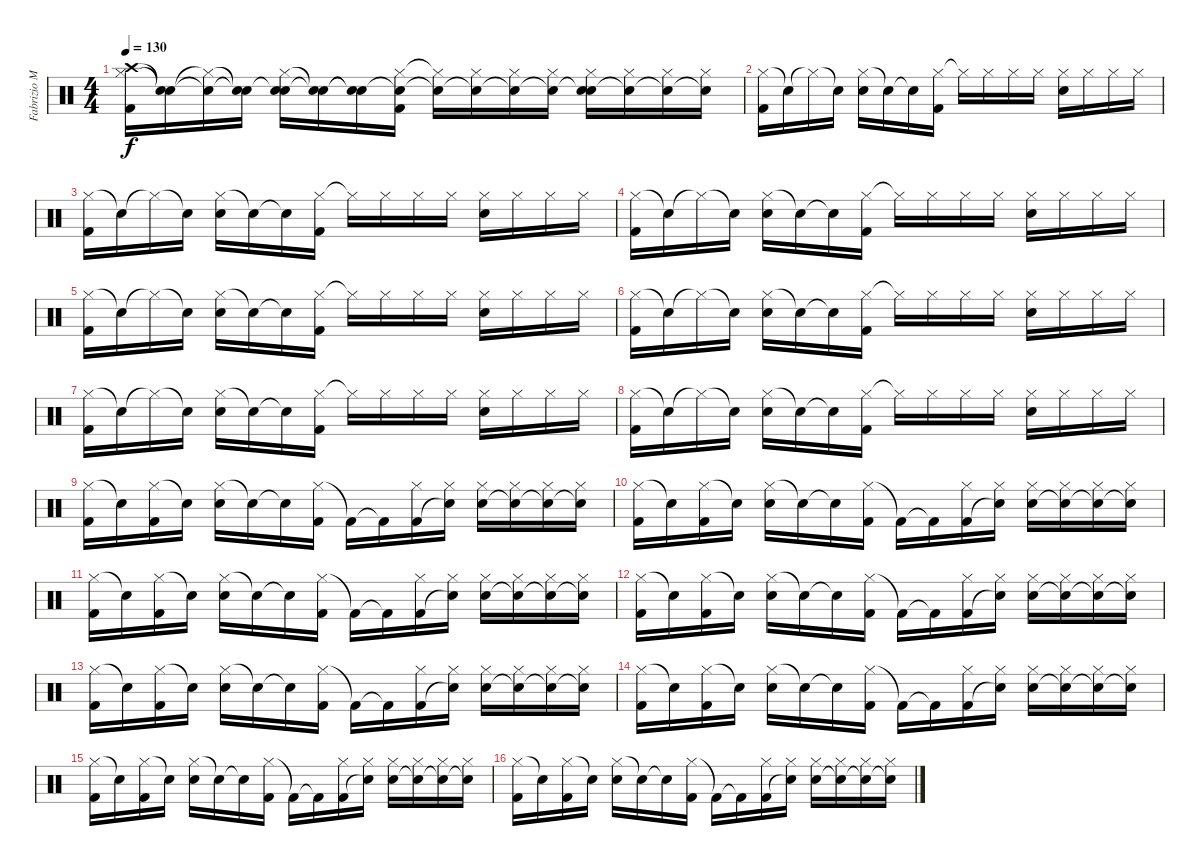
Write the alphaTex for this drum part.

\track ("Fabrizio Moretti" "Fabrizio M") {instrument percussion bank 127}
\staff {score}
\articulation defaults
\ts (4 4)
\tempo 130
\clef neutral
\ks c
("Crash high (hit)" "Hi-Hat (closed)" "Kick (hit) 2").16{dy f} ("Snare (hit)"{t} "Snare (hit)"{t}).16 ("Snare (hit)"{t} "Hi-Hat (closed)"{t}).16 ("Snare (hit)"{t} "Snare (hit)"{t}).16 ("Snare (hit)"{t} "Hi-Hat (closed)" "Electric Snare (hit)").16 ("Snare (hit)"{t} "Snare (hit)"{t}).16 ("Snare (hit)"{t} "Snare (hit)"{t}).16 ("Snare (hit)"{t} "Hi-Hat (closed)" "Kick (hit) 2").16 ("Snare (hit)"{t} "Hi-Hat (closed)"{t}).16 ("Snare (hit)"{t} "Hi-Hat (closed)").16 ("Snare (hit)"{t} "Hi-Hat (closed)").16 ("Snare (hit)"{t} "Hi-Hat (closed)").16 ("Snare (hit)"{t} "Hi-Hat (closed)" "Electric Snare (hit)").16 ("Snare (hit)"{t} "Hi-Hat (closed)").16 ("Snare (hit)"{t} "Hi-Hat (closed)").16 ("Snare (hit)"{t} "Hi-Hat (closed)").16 |
("Hi-Hat (closed)" "Kick (hit) 2").16 "Snare (hit)"{t}.16 "Hi-Hat (closed)"{t}.16 "Snare (hit)"{t}.16 ("Hi-Hat (closed)" "Electric Snare (hit)").16 "Snare (hit)"{t}.16 "Snare (hit)"{t}.16 ("Hi-Hat (closed)" "Kick (hit) 2").16 "Hi-Hat (closed)"{t}.16 "Hi-Hat (closed)".16 "Hi-Hat (closed)".16 "Hi-Hat (closed)".16 ("Hi-Hat (closed)" "Electric Snare (hit)").16 "Hi-Hat (closed)".16 "Hi-Hat (closed)".16 "Hi-Hat (closed)".16 |
("Hi-Hat (closed)" "Kick (hit) 2").16 "Snare (hit)"{t}.16 "Hi-Hat (closed)"{t}.16 "Snare (hit)"{t}.16 ("Hi-Hat (closed)" "Electric Snare (hit)").16 "Snare (hit)"{t}.16 "Snare (hit)"{t}.16 ("Hi-Hat (closed)" "Kick (hit) 2").16 "Hi-Hat (closed)"{t}.16 "Hi-Hat (closed)".16 "Hi-Hat (closed)".16 "Hi-Hat (closed)".16 ("Hi-Hat (closed)" "Electric Snare (hit)").16 "Hi-Hat (closed)".16 "Hi-Hat (closed)".16 "Hi-Hat (closed)".16 |
("Hi-Hat (closed)" "Kick (hit) 2").16 "Snare (hit)"{t}.16 "Hi-Hat (closed)"{t}.16 "Snare (hit)"{t}.16 ("Hi-Hat (closed)" "Electric Snare (hit)").16 "Snare (hit)"{t}.16 "Snare (hit)"{t}.16 ("Hi-Hat (closed)" "Kick (hit) 2").16 "Hi-Hat (closed)"{t}.16 "Hi-Hat (closed)".16 "Hi-Hat (closed)".16 "Hi-Hat (closed)".16 ("Hi-Hat (closed)" "Electric Snare (hit)").16 "Hi-Hat (closed)".16 "Hi-Hat (closed)".16 "Hi-Hat (closed)".16 |
("Hi-Hat (closed)" "Kick (hit) 2").16 "Snare (hit)"{t}.16 "Hi-Hat (closed)"{t}.16 "Snare (hit)"{t}.16 ("Hi-Hat (closed)" "Electric Snare (hit)").16 "Snare (hit)"{t}.16 "Snare (hit)"{t}.16 ("Hi-Hat (closed)" "Kick (hit) 2").16 "Hi-Hat (closed)"{t}.16 "Hi-Hat (closed)".16 "Hi-Hat (closed)".16 "Hi-Hat (closed)".16 ("Hi-Hat (closed)" "Electric Snare (hit)").16 "Hi-Hat (closed)".16 "Hi-Hat (closed)".16 "Hi-Hat (closed)".16 |
("Hi-Hat (closed)" "Kick (hit) 2").16 "Snare (hit)"{t}.16 "Hi-Hat (closed)"{t}.16 "Snare (hit)"{t}.16 ("Hi-Hat (closed)" "Electric Snare (hit)").16 "Snare (hit)"{t}.16 "Snare (hit)"{t}.16 ("Hi-Hat (closed)" "Kick (hit) 2").16 "Hi-Hat (closed)"{t}.16 "Hi-Hat (closed)".16 "Hi-Hat (closed)".16 "Hi-Hat (closed)".16 ("Hi-Hat (closed)" "Electric Snare (hit)").16 "Hi-Hat (closed)".16 "Hi-Hat (closed)".16 "Hi-Hat (closed)".16 |
("Hi-Hat (closed)" "Kick (hit) 2").16 "Snare (hit)"{t}.16 "Hi-Hat (closed)"{t}.16 "Snare (hit)"{t}.16 ("Hi-Hat (closed)" "Electric Snare (hit)").16 "Snare (hit)"{t}.16 "Snare (hit)"{t}.16 ("Hi-Hat (closed)" "Kick (hit) 2").16 "Hi-Hat (closed)"{t}.16 "Hi-Hat (closed)".16 "Hi-Hat (closed)".16 "Hi-Hat (closed)".16 ("Hi-Hat (closed)" "Electric Snare (hit)").16 "Hi-Hat (closed)".16 "Hi-Hat (closed)".16 "Hi-Hat (closed)".16 |
("Hi-Hat (closed)" "Kick (hit) 2").16 "Snare (hit)"{t}.16 "Hi-Hat (closed)"{t}.16 "Snare (hit)"{t}.16 ("Hi-Hat (closed)" "Electric Snare (hit)").16 "Snare (hit)"{t}.16 "Snare (hit)"{t}.16 ("Hi-Hat (closed)" "Kick (hit) 2").16 "Hi-Hat (closed)"{t}.16 "Hi-Hat (closed)".16 "Hi-Hat (closed)".16 "Hi-Hat (closed)".16 ("Hi-Hat (closed)" "Electric Snare (hit)").16 "Hi-Hat (closed)".16 "Hi-Hat (closed)".16 "Hi-Hat (closed)".16 |
("Hi-Hat (closed)" "Kick (hit) 2").16 "Snare (hit)"{t}.16 ("Hi-Hat (closed)" "Kick (hit) 2").16 "Snare (hit)"{t}.16 ("Hi-Hat (closed)" "Electric Snare (hit)").16 "Snare (hit)"{t}.16 "Snare (hit)"{t}.16 ("Hi-Hat (closed)" "Kick (hit) 2").16 "Kick (hit) 2"{t}.16 "Kick (hit) 2"{t}.16 ("Hi-Hat (closed)" "Kick (hit) 2").16 ("Hi-Hat (closed)" "Snare (hit)"{t}).16 ("Hi-Hat (closed)" "Electric Snare (hit)").16 ("Hi-Hat (closed)" "Snare (hit)"{t}).16 ("Hi-Hat (closed)" "Electric Snare (hit)"{t}).16 ("Hi-Hat (closed)" "Snare (hit)"{t}).16 |
("Hi-Hat (closed)" "Kick (hit) 2").16 "Snare (hit)"{t}.16 ("Hi-Hat (closed)" "Kick (hit) 2").16 "Snare (hit)"{t}.16 ("Hi-Hat (closed)" "Electric Snare (hit)").16 "Snare (hit)"{t}.16 "Snare (hit)"{t}.16 ("Hi-Hat (closed)" "Kick (hit) 2").16 "Kick (hit) 2"{t}.16 "Kick (hit) 2"{t}.16 ("Hi-Hat (closed)" "Kick (hit) 2").16 ("Hi-Hat (closed)" "Snare (hit)"{t}).16 ("Hi-Hat (closed)" "Electric Snare (hit)").16 ("Hi-Hat (closed)" "Snare (hit)"{t}).16 ("Hi-Hat (closed)" "Electric Snare (hit)"{t}).16 ("Hi-Hat (closed)" "Snare (hit)"{t}).16 |
("Hi-Hat (closed)" "Kick (hit) 2").16 "Snare (hit)"{t}.16 ("Hi-Hat (closed)" "Kick (hit) 2").16 "Snare (hit)"{t}.16 ("Hi-Hat (closed)" "Electric Snare (hit)").16 "Snare (hit)"{t}.16 "Snare (hit)"{t}.16 ("Hi-Hat (closed)" "Kick (hit) 2").16 "Kick (hit) 2"{t}.16 "Kick (hit) 2"{t}.16 ("Hi-Hat (closed)" "Kick (hit) 2").16 ("Hi-Hat (closed)" "Snare (hit)"{t}).16 ("Hi-Hat (closed)" "Electric Snare (hit)").16 ("Hi-Hat (closed)" "Snare (hit)"{t}).16 ("Hi-Hat (closed)" "Electric Snare (hit)"{t}).16 ("Hi-Hat (closed)" "Snare (hit)"{t}).16 |
("Hi-Hat (closed)" "Kick (hit) 2").16 "Snare (hit)"{t}.16 ("Hi-Hat (closed)" "Kick (hit) 2").16 "Snare (hit)"{t}.16 ("Hi-Hat (closed)" "Electric Snare (hit)").16 "Snare (hit)"{t}.16 "Snare (hit)"{t}.16 ("Hi-Hat (closed)" "Kick (hit) 2").16 "Kick (hit) 2"{t}.16 "Kick (hit) 2"{t}.16 ("Hi-Hat (closed)" "Kick (hit) 2").16 ("Hi-Hat (closed)" "Snare (hit)"{t}).16 ("Hi-Hat (closed)" "Electric Snare (hit)").16 ("Hi-Hat (closed)" "Snare (hit)"{t}).16 ("Hi-Hat (closed)" "Electric Snare (hit)"{t}).16 ("Hi-Hat (closed)" "Snare (hit)"{t}).16 |
("Hi-Hat (closed)" "Kick (hit) 2").16 "Snare (hit)"{t}.16 ("Hi-Hat (closed)" "Kick (hit) 2").16 "Snare (hit)"{t}.16 ("Hi-Hat (closed)" "Electric Snare (hit)").16 "Snare (hit)"{t}.16 "Snare (hit)"{t}.16 ("Hi-Hat (closed)" "Kick (hit) 2").16 "Kick (hit) 2"{t}.16 "Kick (hit) 2"{t}.16 ("Hi-Hat (closed)" "Kick (hit) 2").16 ("Hi-Hat (closed)" "Snare (hit)"{t}).16 ("Hi-Hat (closed)" "Electric Snare (hit)").16 ("Hi-Hat (closed)" "Snare (hit)"{t}).16 ("Hi-Hat (closed)" "Electric Snare (hit)"{t}).16 ("Hi-Hat (closed)" "Snare (hit)"{t}).16 |
("Hi-Hat (closed)" "Kick (hit) 2").16 "Snare (hit)"{t}.16 ("Hi-Hat (closed)" "Kick (hit) 2").16 "Snare (hit)"{t}.16 ("Hi-Hat (closed)" "Electric Snare (hit)").16 "Snare (hit)"{t}.16 "Snare (hit)"{t}.16 ("Hi-Hat (closed)" "Kick (hit) 2").16 "Kick (hit) 2"{t}.16 "Kick (hit) 2"{t}.16 ("Hi-Hat (closed)" "Kick (hit) 2").16 ("Hi-Hat (closed)" "Snare (hit)"{t}).16 ("Hi-Hat (closed)" "Electric Snare (hit)").16 ("Hi-Hat (closed)" "Snare (hit)"{t}).16 ("Hi-Hat (closed)" "Electric Snare (hit)"{t}).16 ("Hi-Hat (closed)" "Snare (hit)"{t}).16 |
("Hi-Hat (closed)" "Kick (hit) 2").16 "Snare (hit)"{t}.16 ("Hi-Hat (closed)" "Kick (hit) 2").16 "Snare (hit)"{t}.16 ("Hi-Hat (closed)" "Electric Snare (hit)").16 "Snare (hit)"{t}.16 "Snare (hit)"{t}.16 ("Hi-Hat (closed)" "Kick (hit) 2").16 "Kick (hit) 2"{t}.16 "Kick (hit) 2"{t}.16 ("Hi-Hat (closed)" "Kick (hit) 2").16 ("Hi-Hat (closed)" "Snare (hit)"{t}).16 ("Hi-Hat (closed)" "Electric Snare (hit)").16 ("Hi-Hat (closed)" "Snare (hit)"{t}).16 ("Hi-Hat (closed)" "Electric Snare (hit)"{t}).16 ("Hi-Hat (closed)" "Snare (hit)"{t}).16 |
("Hi-Hat (closed)" "Kick (hit) 2").16 "Snare (hit)"{t}.16 ("Hi-Hat (closed)" "Kick (hit) 2").16 "Snare (hit)"{t}.16 ("Hi-Hat (closed)" "Electric Snare (hit)").16 "Snare (hit)"{t}.16 "Snare (hit)"{t}.16 ("Hi-Hat (closed)" "Kick (hit) 2").16 "Kick (hit) 2"{t}.16 "Kick (hit) 2"{t}.16 ("Hi-Hat (closed)" "Kick (hit) 2").16 ("Hi-Hat (closed)" "Snare (hit)"{t}).16 ("Hi-Hat (closed)" "Electric Snare (hit)").16 ("Hi-Hat (closed)" "Snare (hit)"{t}).16 ("Hi-Hat (closed)" "Electric Snare (hit)"{t}).16 ("Hi-Hat (closed)" "Snare (hit)"{t}).16
